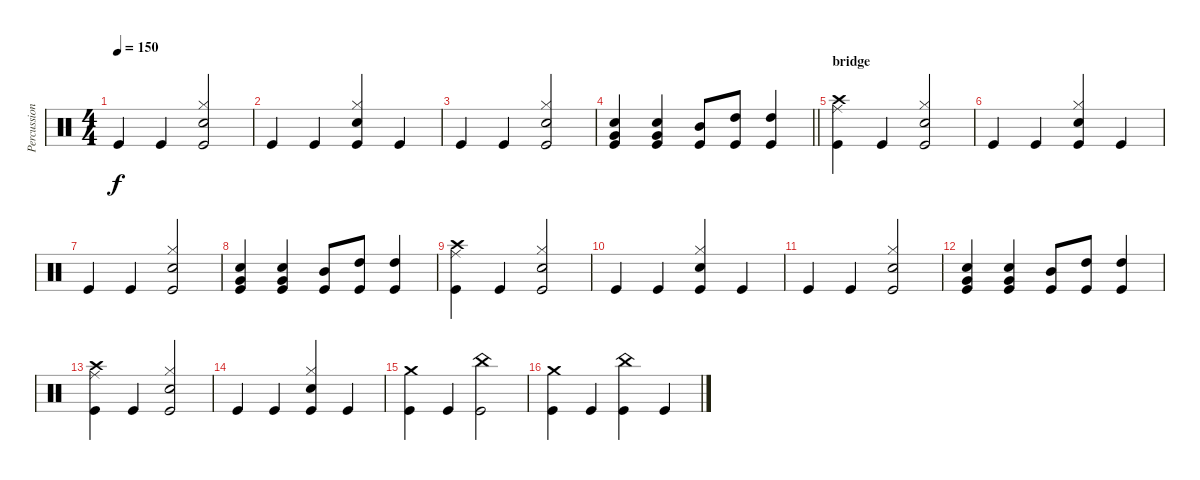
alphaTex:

\track ("Percussion" "Percussion") {instrument percussion}
\staff {score}
\articulation defaults
\ts (4 4)
\tempo 150
\clef neutral
\ks c "Kick (hit)".4{dy f} "Kick (hit)".4
("Hi-Hat (closed)" "Electric Snare (hit)" "Kick (hit)").2 |
"Kick (hit)".4 "Kick (hit)".4 ("Hi-Hat (closed)" "Electric Snare (hit)" "Kick (hit)").4 "Kick (hit)".4 |
"Kick (hit)".4 "Kick (hit)".4 ("Hi-Hat (closed)" "Electric Snare (hit)" "Kick (hit)").2 |
\barLineRight lightlight
("Electric Snare (hit)" "Very Low Tom (hit)" "Kick (hit)").4 ("Electric Snare (hit)" "Very Low Tom (hit)" "Kick (hit)").4 ("Mid Tom (hit)" "Kick (hit)").8 ("High Tom (hit)" "Kick (hit)").8 ("High Tom (hit)" "Kick (hit)").4 |
\section ("" "bridge")
("Crash high (hit)" "Ride (middle)" "Kick (hit)").4 "Kick (hit)".4 ("Hi-Hat (closed)" "Electric Snare (hit)" "Kick (hit)").2 |
"Kick (hit)".4 "Kick (hit)".4 ("Hi-Hat (closed)" "Electric Snare (hit)" "Kick (hit)").4 "Kick (hit)".4 |
"Kick (hit)".4 "Kick (hit)".4 ("Hi-Hat (closed)" "Electric Snare (hit)" "Kick (hit)").2 |
("Electric Snare (hit)" "Very Low Tom (hit)" "Kick (hit)").4 ("Electric Snare (hit)" "Very Low Tom (hit)" "Kick (hit)").4 ("Mid Tom (hit)" "Kick (hit)").8 ("High Tom (hit)" "Kick (hit)").8 ("High Tom (hit)" "Kick (hit)").4 |
("Crash high (hit)" "Ride (middle)" "Kick (hit)").4 "Kick (hit)".4 ("Hi-Hat (closed)" "Electric Snare (hit)" "Kick (hit)").2 |
"Kick (hit)".4 "Kick (hit)".4 ("Hi-Hat (closed)" "Electric Snare (hit)" "Kick (hit)").4 "Kick (hit)".4 |
"Kick (hit)".4 "Kick (hit)".4 ("Hi-Hat (closed)" "Electric Snare (hit)" "Kick (hit)").2 |
("Electric Snare (hit)" "Very Low Tom (hit)" "Kick (hit)").4 ("Electric Snare (hit)" "Very Low Tom (hit)" "Kick (hit)").4 ("Mid Tom (hit)" "Kick (hit)").8 ("High Tom (hit)" "Kick (hit)").8 ("High Tom (hit)" "Kick (hit)").4 |
("Crash high (hit)" "Ride (middle)" "Kick (hit)").4 "Kick (hit)".4 ("Hi-Hat (closed)" "Electric Snare (hit)" "Kick (hit)").2 |
"Kick (hit)".4 "Kick (hit)".4 ("Hi-Hat (closed)" "Electric Snare (hit)" "Kick (hit)").4 "Kick (hit)".4 |
("Crash medium (hit)" "Kick (hit)").4 "Kick (hit)".4 ("China (hit)" "Kick (hit)").2 |
("Crash medium (hit)" "Kick (hit)").4 "Kick (hit)".4 ("China (hit)" "Kick (hit)").4 "Kick (hit)".4
